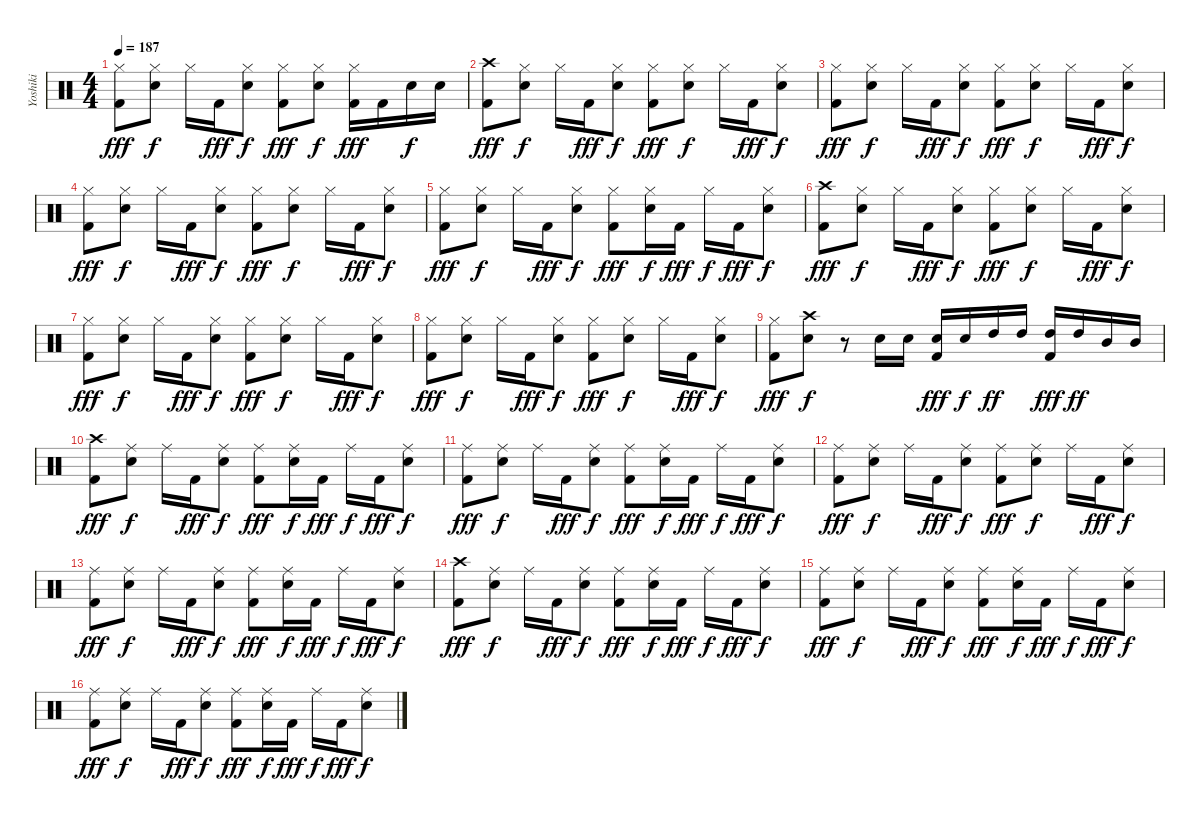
\track ("Yoshiki" "Yoshiki") {instrument percussion}
\staff {score}
\articulation defaults
\ts (4 4)
\tempo 187
\clef neutral
\ks c
("Hi-Hat (closed)" "Kick (hit) 2").8{dy fff} ("Hi-Hat (closed)" "Electric Snare (hit)").8{dy f} "Hi-Hat (closed)".16 "Kick (hit) 2".16{dy fff} ("Hi-Hat (closed)" "Electric Snare (hit)").8{dy f} ("Hi-Hat (closed)" "Kick (hit) 2").8{dy fff} ("Hi-Hat (closed)" "Electric Snare (hit)").8{dy f} ("Hi-Hat (closed)" "Kick (hit) 2").16{dy fff} "Kick (hit) 2".16 "Electric Snare (hit)".16{dy f} "Electric Snare (hit)".16 |
("Crash high (hit)" "Kick (hit) 2").8{dy fff} ("Hi-Hat (closed)" "Electric Snare (hit)").8{dy f} "Hi-Hat (closed)".16 "Kick (hit) 2".16{dy fff} ("Hi-Hat (closed)" "Electric Snare (hit)").8{dy f} ("Hi-Hat (closed)" "Kick (hit) 2").8{dy fff} ("Hi-Hat (closed)" "Electric Snare (hit)").8{dy f} "Hi-Hat (closed)".16 "Kick (hit) 2".16{dy fff} ("Hi-Hat (closed)" "Electric Snare (hit)").8{dy f} |
("Hi-Hat (closed)" "Kick (hit) 2").8{dy fff} ("Hi-Hat (closed)" "Electric Snare (hit)").8{dy f} "Hi-Hat (closed)".16 "Kick (hit) 2".16{dy fff} ("Hi-Hat (closed)" "Electric Snare (hit)").8{dy f} ("Hi-Hat (closed)" "Kick (hit) 2").8{dy fff} ("Hi-Hat (closed)" "Electric Snare (hit)").8{dy f} "Hi-Hat (closed)".16 "Kick (hit) 2".16{dy fff} ("Hi-Hat (closed)" "Electric Snare (hit)").8{dy f} |
("Hi-Hat (closed)" "Kick (hit) 2").8{dy fff} ("Hi-Hat (closed)" "Electric Snare (hit)").8{dy f} "Hi-Hat (closed)".16 "Kick (hit) 2".16{dy fff} ("Hi-Hat (closed)" "Electric Snare (hit)").8{dy f} ("Hi-Hat (closed)" "Kick (hit) 2").8{dy fff} ("Hi-Hat (closed)" "Electric Snare (hit)").8{dy f} "Hi-Hat (closed)".16 "Kick (hit) 2".16{dy fff} ("Hi-Hat (closed)" "Electric Snare (hit)").8{dy f} |
("Hi-Hat (closed)" "Kick (hit) 2").8{dy fff} ("Hi-Hat (closed)" "Electric Snare (hit)").8{dy f} "Hi-Hat (closed)".16 "Kick (hit) 2".16{dy fff} ("Hi-Hat (closed)" "Electric Snare (hit)").8{dy f} ("Hi-Hat (closed)" "Kick (hit) 2").8{dy fff} ("Hi-Hat (closed)" "Electric Snare (hit)").16{dy f} "Kick (hit) 2".16{dy fff} "Hi-Hat (closed)".16{dy f} "Kick (hit) 2".16{dy fff} ("Hi-Hat (closed)" "Electric Snare (hit)").8{dy f} |
("Crash high (hit)" "Kick (hit) 2").8{dy fff} ("Hi-Hat (closed)" "Electric Snare (hit)").8{dy f} "Hi-Hat (closed)".16 "Kick (hit) 2".16{dy fff} ("Hi-Hat (closed)" "Electric Snare (hit)").8{dy f} ("Hi-Hat (closed)" "Kick (hit) 2").8{dy fff} ("Hi-Hat (closed)" "Electric Snare (hit)").8{dy f} "Hi-Hat (closed)".16 "Kick (hit) 2".16{dy fff} ("Hi-Hat (closed)" "Electric Snare (hit)").8{dy f} |
("Hi-Hat (closed)" "Kick (hit) 2").8{dy fff} ("Hi-Hat (closed)" "Electric Snare (hit)").8{dy f} "Hi-Hat (closed)".16 "Kick (hit) 2".16{dy fff} ("Hi-Hat (closed)" "Electric Snare (hit)").8{dy f} ("Hi-Hat (closed)" "Kick (hit) 2").8{dy fff} ("Hi-Hat (closed)" "Electric Snare (hit)").8{dy f} "Hi-Hat (closed)".16 "Kick (hit) 2".16{dy fff} ("Hi-Hat (closed)" "Electric Snare (hit)").8{dy f} |
("Hi-Hat (closed)" "Kick (hit) 2").8{dy fff} ("Hi-Hat (closed)" "Electric Snare (hit)").8{dy f} "Hi-Hat (closed)".16 "Kick (hit) 2".16{dy fff} ("Hi-Hat (closed)" "Electric Snare (hit)").8{dy f} ("Hi-Hat (closed)" "Kick (hit) 2").8{dy fff} ("Hi-Hat (closed)" "Electric Snare (hit)").8{dy f} "Hi-Hat (closed)".16 "Kick (hit) 2".16{dy fff} ("Hi-Hat (closed)" "Electric Snare (hit)").8{dy f} |
("Hi-Hat (closed)" "Kick (hit) 2").8{dy fff} ("Crash high (hit)" "Electric Snare (hit)").8{dy f} r.8 "Electric Snare (hit)".16 "Electric Snare (hit)".16 ("Electric Snare (hit)" "Kick (hit) 2").16{dy fff} "Electric Snare (hit)".16{dy f} "High Tom (hit)".16{dy ff} "High Tom (hit)".16 ("High Tom (hit)" "Kick (hit) 2").16{dy fff} "High Tom (hit)".16{dy ff} "Mid Tom (hit)".16 "Mid Tom (hit)".16 |
("Crash high (hit)" "Kick (hit) 2").8{dy fff} ("Ride (middle)" "Electric Snare (hit)").8{dy f} "Ride (middle)".16 "Kick (hit) 2".16{dy fff} ("Ride (middle)" "Electric Snare (hit)").8{dy f} ("Ride (middle)" "Kick (hit) 2").8{dy fff} ("Ride (middle)" "Electric Snare (hit)").16{dy f} "Kick (hit) 2".16{dy fff} "Ride (middle)".16{dy f} "Kick (hit) 2".16{dy fff} ("Ride (middle)" "Electric Snare (hit)").8{dy f} |
("Ride (middle)" "Kick (hit) 2").8{dy fff} ("Ride (middle)" "Electric Snare (hit)").8{dy f} "Ride (middle)".16 "Kick (hit) 2".16{dy fff} ("Ride (middle)" "Electric Snare (hit)").8{dy f} ("Ride (middle)" "Kick (hit) 2").8{dy fff} ("Ride (middle)" "Electric Snare (hit)").16{dy f} "Kick (hit) 2".16{dy fff} "Ride (middle)".16{dy f} "Kick (hit) 2".16{dy fff} ("Ride (middle)" "Electric Snare (hit)").8{dy f} |
("Ride (middle)" "Kick (hit) 2").8{dy fff} ("Ride (middle)" "Electric Snare (hit)").8{dy f} "Ride (middle)".16 "Kick (hit) 2".16{dy fff} ("Ride (middle)" "Electric Snare (hit)").8{dy f} ("Ride (middle)" "Kick (hit) 2").8{dy fff} ("Ride (middle)" "Electric Snare (hit)").8{dy f} "Ride (middle)".16 "Kick (hit) 2".16{dy fff} ("Ride (middle)" "Electric Snare (hit)").8{dy f} |
("Ride (middle)" "Kick (hit) 2").8{dy fff} ("Ride (middle)" "Electric Snare (hit)").8{dy f} "Ride (middle)".16 "Kick (hit) 2".16{dy fff} ("Ride (middle)" "Electric Snare (hit)").8{dy f} ("Ride (middle)" "Kick (hit) 2").8{dy fff} ("Ride (middle)" "Electric Snare (hit)").16{dy f} "Kick (hit) 2".16{dy fff} "Ride (middle)".16{dy f} "Kick (hit) 2".16{dy fff} ("Ride (middle)" "Electric Snare (hit)").8{dy f} |
("Crash high (hit)" "Kick (hit) 2").8{dy fff} ("Ride (middle)" "Electric Snare (hit)").8{dy f} "Ride (middle)".16 "Kick (hit) 2".16{dy fff} ("Ride (middle)" "Electric Snare (hit)").8{dy f} ("Ride (middle)" "Kick (hit) 2").8{dy fff} ("Ride (middle)" "Electric Snare (hit)").16{dy f} "Kick (hit) 2".16{dy fff} "Ride (middle)".16{dy f} "Kick (hit) 2".16{dy fff} ("Ride (middle)" "Electric Snare (hit)").8{dy f} |
("Ride (middle)" "Kick (hit) 2").8{dy fff} ("Ride (middle)" "Electric Snare (hit)").8{dy f} "Ride (middle)".16 "Kick (hit) 2".16{dy fff} ("Ride (middle)" "Electric Snare (hit)").8{dy f} ("Ride (middle)" "Kick (hit) 2").8{dy fff} ("Ride (middle)" "Electric Snare (hit)").16{dy f} "Kick (hit) 2".16{dy fff} "Ride (middle)".16{dy f} "Kick (hit) 2".16{dy fff} ("Ride (middle)" "Electric Snare (hit)").8{dy f} |
("Ride (middle)" "Kick (hit) 2").8{dy fff} ("Ride (middle)" "Electric Snare (hit)").8{dy f} "Ride (middle)".16 "Kick (hit) 2".16{dy fff} ("Ride (middle)" "Electric Snare (hit)").8{dy f} ("Ride (middle)" "Kick (hit) 2").8{dy fff} ("Ride (middle)" "Electric Snare (hit)").16{dy f} "Kick (hit) 2".16{dy fff} "Ride (middle)".16{dy f} "Kick (hit) 2".16{dy fff} ("Ride (middle)" "Electric Snare (hit)").8{dy f}
